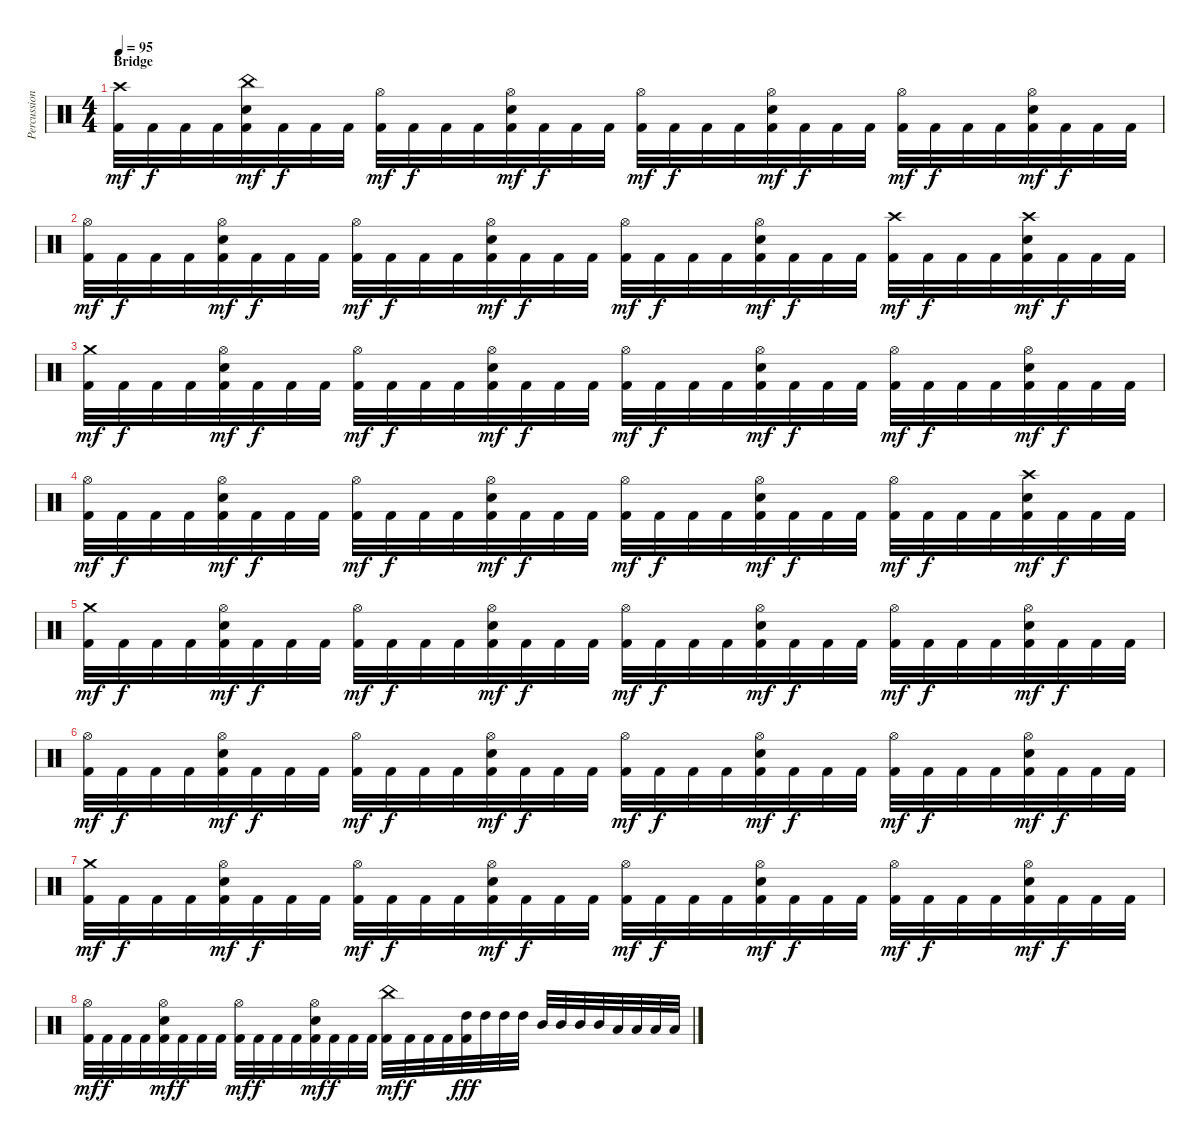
\track ("Percussion" "Percussion") {instrument percussion}
\staff {score}
\articulation defaults
\ts (4 4)
\section ("" "Bridge")
\tempo 95
\clef neutral
\ks c
("Crash high (hit)" "Kick (hit) 2").32{dy mf} "Kick (hit) 2".32{dy f} "Kick (hit) 2".32 "Kick (hit) 2".32 ("China (hit)" "Electric Snare (hit)" "Kick (hit) 2").32{dy mf} "Kick (hit) 2".32{dy f} "Kick (hit) 2".32 "Kick (hit) 2".32 ("Hi-Hat (open)" "Kick (hit) 2").32{dy mf} "Kick (hit) 2".32{dy f} "Kick (hit) 2".32 "Kick (hit) 2".32 ("Hi-Hat (open)" "Electric Snare (hit)" "Kick (hit) 2").32{dy mf} "Kick (hit) 2".32{dy f} "Kick (hit) 2".32 "Kick (hit) 2".32 ("Hi-Hat (open)" "Kick (hit) 2").32{dy mf} "Kick (hit) 2".32{dy f} "Kick (hit) 2".32 "Kick (hit) 2".32 ("Hi-Hat (open)" "Electric Snare (hit)" "Kick (hit) 2").32{dy mf} "Kick (hit) 2".32{dy f} "Kick (hit) 2".32 "Kick (hit) 2".32 ("Hi-Hat (open)" "Kick (hit) 2").32{dy mf} "Kick (hit) 2".32{dy f} "Kick (hit) 2".32 "Kick (hit) 2".32 ("Hi-Hat (open)" "Electric Snare (hit)" "Kick (hit) 2").32{dy mf} "Kick (hit) 2".32{dy f} "Kick (hit) 2".32 "Kick (hit) 2".32 |
("Hi-Hat (open)" "Kick (hit) 2").32{dy mf} "Kick (hit) 2".32{dy f} "Kick (hit) 2".32 "Kick (hit) 2".32 ("Hi-Hat (open)" "Electric Snare (hit)" "Kick (hit) 2").32{dy mf} "Kick (hit) 2".32{dy f} "Kick (hit) 2".32 "Kick (hit) 2".32 ("Hi-Hat (open)" "Kick (hit) 2").32{dy mf} "Kick (hit) 2".32{dy f} "Kick (hit) 2".32 "Kick (hit) 2".32 ("Hi-Hat (open)" "Electric Snare (hit)" "Kick (hit) 2").32{dy mf} "Kick (hit) 2".32{dy f} "Kick (hit) 2".32 "Kick (hit) 2".32 ("Hi-Hat (open)" "Kick (hit) 2").32{dy mf} "Kick (hit) 2".32{dy f} "Kick (hit) 2".32 "Kick (hit) 2".32 ("Hi-Hat (open)" "Electric Snare (hit)" "Kick (hit) 2").32{dy mf} "Kick (hit) 2".32{dy f} "Kick (hit) 2".32 "Kick (hit) 2".32 ("Crash high (hit)" "Kick (hit) 2").32{dy mf} "Kick (hit) 2".32{dy f} "Kick (hit) 2".32 "Kick (hit) 2".32 ("Crash high (hit)" "Electric Snare (hit)" "Kick (hit) 2").32{dy mf} "Kick (hit) 2".32{dy f} "Kick (hit) 2".32 "Kick (hit) 2".32 |
("Crash medium (hit)" "Kick (hit) 2").32{dy mf} "Kick (hit) 2".32{dy f} "Kick (hit) 2".32 "Kick (hit) 2".32 ("Hi-Hat (open)" "Electric Snare (hit)" "Kick (hit) 2").32{dy mf} "Kick (hit) 2".32{dy f} "Kick (hit) 2".32 "Kick (hit) 2".32 ("Hi-Hat (open)" "Kick (hit) 2").32{dy mf} "Kick (hit) 2".32{dy f} "Kick (hit) 2".32 "Kick (hit) 2".32 ("Hi-Hat (open)" "Electric Snare (hit)" "Kick (hit) 2").32{dy mf} "Kick (hit) 2".32{dy f} "Kick (hit) 2".32 "Kick (hit) 2".32 ("Hi-Hat (open)" "Kick (hit) 2").32{dy mf} "Kick (hit) 2".32{dy f} "Kick (hit) 2".32 "Kick (hit) 2".32 ("Hi-Hat (open)" "Electric Snare (hit)" "Kick (hit) 2").32{dy mf} "Kick (hit) 2".32{dy f} "Kick (hit) 2".32 "Kick (hit) 2".32 ("Hi-Hat (open)" "Kick (hit) 2").32{dy mf} "Kick (hit) 2".32{dy f} "Kick (hit) 2".32 "Kick (hit) 2".32 ("Hi-Hat (open)" "Electric Snare (hit)" "Kick (hit) 2").32{dy mf} "Kick (hit) 2".32{dy f} "Kick (hit) 2".32 "Kick (hit) 2".32 |
("Hi-Hat (open)" "Kick (hit) 2").32{dy mf} "Kick (hit) 2".32{dy f} "Kick (hit) 2".32 "Kick (hit) 2".32 ("Hi-Hat (open)" "Electric Snare (hit)" "Kick (hit) 2").32{dy mf} "Kick (hit) 2".32{dy f} "Kick (hit) 2".32 "Kick (hit) 2".32 ("Hi-Hat (open)" "Kick (hit) 2").32{dy mf} "Kick (hit) 2".32{dy f} "Kick (hit) 2".32 "Kick (hit) 2".32 ("Hi-Hat (open)" "Electric Snare (hit)" "Kick (hit) 2").32{dy mf} "Kick (hit) 2".32{dy f} "Kick (hit) 2".32 "Kick (hit) 2".32 ("Hi-Hat (open)" "Kick (hit) 2").32{dy mf} "Kick (hit) 2".32{dy f} "Kick (hit) 2".32 "Kick (hit) 2".32 ("Hi-Hat (open)" "Electric Snare (hit)" "Kick (hit) 2").32{dy mf} "Kick (hit) 2".32{dy f} "Kick (hit) 2".32 "Kick (hit) 2".32 ("Hi-Hat (open)" "Kick (hit) 2").32{dy mf} "Kick (hit) 2".32{dy f} "Kick (hit) 2".32 "Kick (hit) 2".32 ("Crash high (hit)" "Electric Snare (hit)" "Kick (hit) 2").32{dy mf} "Kick (hit) 2".32{dy f} "Kick (hit) 2".32 "Kick (hit) 2".32 |
("Crash medium (hit)" "Kick (hit) 2").32{dy mf} "Kick (hit) 2".32{dy f} "Kick (hit) 2".32 "Kick (hit) 2".32 ("Hi-Hat (open)" "Electric Snare (hit)" "Kick (hit) 2").32{dy mf} "Kick (hit) 2".32{dy f} "Kick (hit) 2".32 "Kick (hit) 2".32 ("Hi-Hat (open)" "Kick (hit) 2").32{dy mf} "Kick (hit) 2".32{dy f} "Kick (hit) 2".32 "Kick (hit) 2".32 ("Hi-Hat (open)" "Electric Snare (hit)" "Kick (hit) 2").32{dy mf} "Kick (hit) 2".32{dy f} "Kick (hit) 2".32 "Kick (hit) 2".32 ("Hi-Hat (open)" "Kick (hit) 2").32{dy mf} "Kick (hit) 2".32{dy f} "Kick (hit) 2".32 "Kick (hit) 2".32 ("Hi-Hat (open)" "Electric Snare (hit)" "Kick (hit) 2").32{dy mf} "Kick (hit) 2".32{dy f} "Kick (hit) 2".32 "Kick (hit) 2".32 ("Hi-Hat (open)" "Kick (hit) 2").32{dy mf} "Kick (hit) 2".32{dy f} "Kick (hit) 2".32 "Kick (hit) 2".32 ("Hi-Hat (open)" "Electric Snare (hit)" "Kick (hit) 2").32{dy mf} "Kick (hit) 2".32{dy f} "Kick (hit) 2".32 "Kick (hit) 2".32 |
("Hi-Hat (open)" "Kick (hit) 2").32{dy mf} "Kick (hit) 2".32{dy f} "Kick (hit) 2".32 "Kick (hit) 2".32 ("Hi-Hat (open)" "Electric Snare (hit)" "Kick (hit) 2").32{dy mf} "Kick (hit) 2".32{dy f} "Kick (hit) 2".32 "Kick (hit) 2".32 ("Hi-Hat (open)" "Kick (hit) 2").32{dy mf} "Kick (hit) 2".32{dy f} "Kick (hit) 2".32 "Kick (hit) 2".32 ("Hi-Hat (open)" "Electric Snare (hit)" "Kick (hit) 2").32{dy mf} "Kick (hit) 2".32{dy f} "Kick (hit) 2".32 "Kick (hit) 2".32 ("Hi-Hat (open)" "Kick (hit) 2").32{dy mf} "Kick (hit) 2".32{dy f} "Kick (hit) 2".32 "Kick (hit) 2".32 ("Hi-Hat (open)" "Electric Snare (hit)" "Kick (hit) 2").32{dy mf} "Kick (hit) 2".32{dy f} "Kick (hit) 2".32 "Kick (hit) 2".32 ("Hi-Hat (open)" "Kick (hit) 2").32{dy mf} "Kick (hit) 2".32{dy f} "Kick (hit) 2".32 "Kick (hit) 2".32 ("Hi-Hat (open)" "Electric Snare (hit)" "Kick (hit) 2").32{dy mf} "Kick (hit) 2".32{dy f} "Kick (hit) 2".32 "Kick (hit) 2".32 |
("Crash medium (hit)" "Kick (hit) 2").32{dy mf} "Kick (hit) 2".32{dy f} "Kick (hit) 2".32 "Kick (hit) 2".32 ("Hi-Hat (open)" "Electric Snare (hit)" "Kick (hit) 2").32{dy mf} "Kick (hit) 2".32{dy f} "Kick (hit) 2".32 "Kick (hit) 2".32 ("Hi-Hat (open)" "Kick (hit) 2").32{dy mf} "Kick (hit) 2".32{dy f} "Kick (hit) 2".32 "Kick (hit) 2".32 ("Hi-Hat (open)" "Electric Snare (hit)" "Kick (hit) 2").32{dy mf} "Kick (hit) 2".32{dy f} "Kick (hit) 2".32 "Kick (hit) 2".32 ("Hi-Hat (open)" "Kick (hit) 2").32{dy mf} "Kick (hit) 2".32{dy f} "Kick (hit) 2".32 "Kick (hit) 2".32 ("Hi-Hat (open)" "Electric Snare (hit)" "Kick (hit) 2").32{dy mf} "Kick (hit) 2".32{dy f} "Kick (hit) 2".32 "Kick (hit) 2".32 ("Hi-Hat (open)" "Kick (hit) 2").32{dy mf} "Kick (hit) 2".32{dy f} "Kick (hit) 2".32 "Kick (hit) 2".32 ("Hi-Hat (open)" "Electric Snare (hit)" "Kick (hit) 2").32{dy mf} "Kick (hit) 2".32{dy f} "Kick (hit) 2".32 "Kick (hit) 2".32 |
("Hi-Hat (open)" "Kick (hit) 2").32{dy mf} "Kick (hit) 2".32{dy f} "Kick (hit) 2".32 "Kick (hit) 2".32 ("Hi-Hat (open)" "Electric Snare (hit)" "Kick (hit) 2").32{dy mf} "Kick (hit) 2".32{dy f} "Kick (hit) 2".32 "Kick (hit) 2".32 ("Hi-Hat (open)" "Kick (hit) 2").32{dy mf} "Kick (hit) 2".32{dy f} "Kick (hit) 2".32 "Kick (hit) 2".32 ("Hi-Hat (open)" "Electric Snare (hit)" "Kick (hit) 2").32{dy mf} "Kick (hit) 2".32{dy f} "Kick (hit) 2".32 "Kick (hit) 2".32 ("China (hit)" "Kick (hit) 2").32{dy mf} "Kick (hit) 2".32{dy f} "Kick (hit) 2".32 "Kick (hit) 2".32 ("High Tom (hit)" "Kick (hit) 2").32{dy fff} "High Tom (hit)".32 "High Tom (hit)".32 "High Tom (hit)".32 "Mid Tom (hit)".32 "Mid Tom (hit)".32 "Mid Tom (hit)".32 "Mid Tom (hit)".32 "Low Tom (hit)".32 "Low Tom (hit)".32 "Low Tom (hit)".32 "Low Tom (hit)".32
